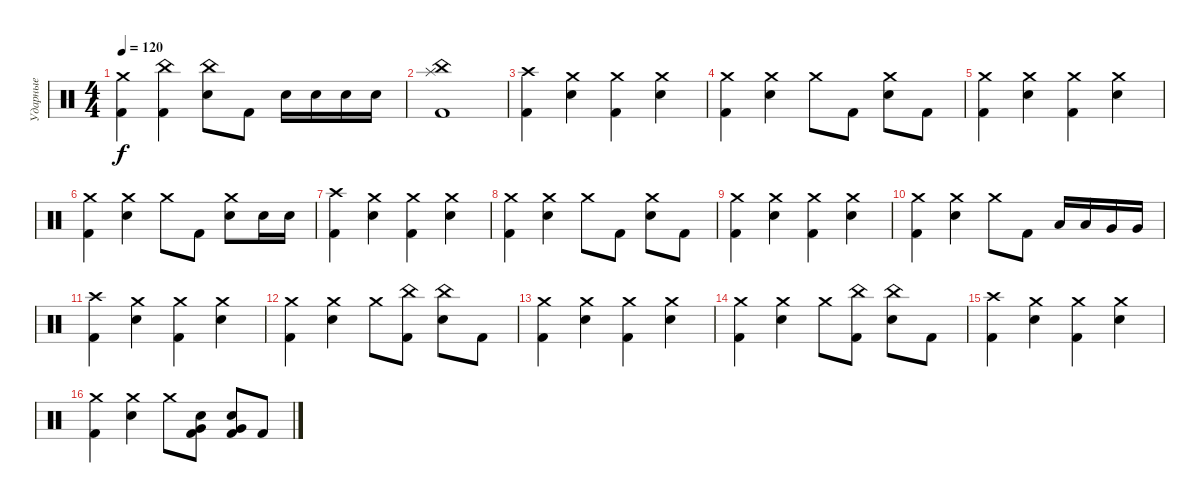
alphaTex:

\track ("Ударные" "Ударные") {instrument percussion}
\staff {score}
\articulation defaults
\ts (4 4)
\tempo 120
\clef neutral
\ks c
("Crash medium (hit)" "Kick (hit) 2").4{dy f} ("China (hit)" "Kick (hit) 2").4 ("China (hit)" "Electric Snare (hit)").8 "Kick (hit) 2".8 "Electric Snare (hit)".16 "Electric Snare (hit)".16 "Electric Snare (hit)".16 "Electric Snare (hit)".16 |
("China (hit)" "Splash (hit)" "Kick (hit) 2").1 |
("Crash high (hit)" "Kick (hit) 2").4 ("Crash medium (hit)" "Electric Snare (hit)").4 ("Crash medium (hit)" "Kick (hit) 2").4 ("Crash medium (hit)" "Electric Snare (hit)").4 |
("Crash medium (hit)" "Kick (hit) 2").4 ("Crash medium (hit)" "Electric Snare (hit)").4 "Crash medium (hit)".8 "Kick (hit) 2".8 ("Crash medium (hit)" "Electric Snare (hit)").8 "Kick (hit) 2".8 |
("Crash medium (hit)" "Kick (hit) 2").4 ("Crash medium (hit)" "Electric Snare (hit)").4 ("Crash medium (hit)" "Kick (hit) 2").4 ("Crash medium (hit)" "Electric Snare (hit)").4 |
("Crash medium (hit)" "Kick (hit) 2").4 ("Crash medium (hit)" "Electric Snare (hit)").4 "Crash medium (hit)".8 "Kick (hit) 2".8 ("Crash medium (hit)" "Electric Snare (hit)").8 "Electric Snare (hit)".16 "Electric Snare (hit)".16 |
("Crash high (hit)" "Kick (hit) 2").4 ("Crash medium (hit)" "Electric Snare (hit)").4 ("Crash medium (hit)" "Kick (hit) 2").4 ("Crash medium (hit)" "Electric Snare (hit)").4 |
("Crash medium (hit)" "Kick (hit) 2").4 ("Crash medium (hit)" "Electric Snare (hit)").4 "Crash medium (hit)".8 "Kick (hit) 2".8 ("Crash medium (hit)" "Electric Snare (hit)").8 "Kick (hit) 2".8 |
("Crash medium (hit)" "Kick (hit) 2").4 ("Crash medium (hit)" "Electric Snare (hit)").4 ("Crash medium (hit)" "Kick (hit) 2").4 ("Crash medium (hit)" "Electric Snare (hit)").4 |
("Crash medium (hit)" "Kick (hit) 2").4 ("Crash medium (hit)" "Electric Snare (hit)").4 "Crash medium (hit)".8 "Kick (hit) 2".8 "Low Tom (hit)".16 "Low Tom (hit)".16 "Very Low Tom (hit)".16 "Very Low Tom (hit)".16 |
("Crash high (hit)" "Kick (hit) 2").4 ("Crash medium (hit)" "Electric Snare (hit)").4 ("Crash medium (hit)" "Kick (hit) 2").4 ("Crash medium (hit)" "Electric Snare (hit)").4 |
("Crash medium (hit)" "Kick (hit) 2").4 ("Crash medium (hit)" "Electric Snare (hit)").4 "Crash medium (hit)".8 ("China (hit)" "Kick (hit) 2").8 ("China (hit)" "Electric Snare (hit)").8 "Kick (hit) 2".8 |
("Crash medium (hit)" "Kick (hit) 2").4 ("Crash medium (hit)" "Electric Snare (hit)").4 ("Crash medium (hit)" "Kick (hit) 2").4 ("Crash medium (hit)" "Electric Snare (hit)").4 |
("Crash medium (hit)" "Kick (hit) 2").4 ("Crash medium (hit)" "Electric Snare (hit)").4 "Crash medium (hit)".8 ("China (hit)" "Kick (hit) 2").8 ("China (hit)" "Electric Snare (hit)").8 "Kick (hit) 2".8 |
("Crash high (hit)" "Kick (hit) 2").4 ("Crash medium (hit)" "Electric Snare (hit)").4 ("Crash medium (hit)" "Kick (hit) 2").4 ("Crash medium (hit)" "Electric Snare (hit)").4 |
("Crash medium (hit)" "Kick (hit) 2").4 ("Crash medium (hit)" "Electric Snare (hit)").4 "Crash medium (hit)".8 ("Electric Snare (hit)" "Very Low Tom (hit)" "Kick (hit) 2").8 ("Electric Snare (hit)" "Very Low Tom (hit)" "Kick (hit) 2").8 "Kick (hit) 2".8
